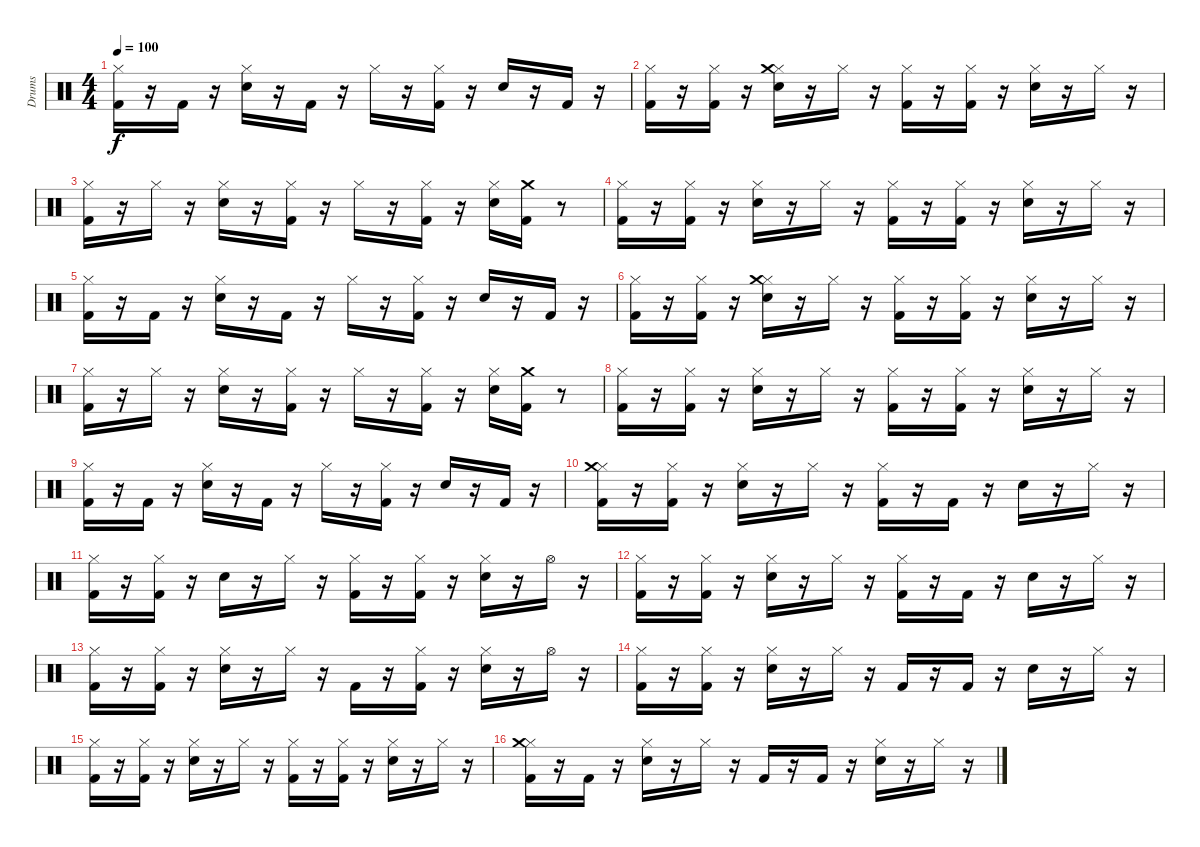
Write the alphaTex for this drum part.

\bracketExtendMode groupsimilarinstruments
\otherSystemsTrackNameOrientation horizontal
\track ("Drumkit" "Drums") {instrument percussion}
\staff {score}
\articulation defaults
\ts (4 4)
\tempo 100
\clef neutral
\ks c
("Kick (hit) 2" "Hi-Hat (closed)").16{dy f beam Down} r.16{beam Down} "Kick (hit) 2".16{beam Down} r.16{beam Down} ("Snare (hit) 2" "Hi-Hat (closed)").16{beam Down} r.16{beam Down} "Kick (hit) 2".16{beam Down} r.16{beam Down} "Hi-Hat (closed)".16{beam Down} r.16{beam Down} ("Kick (hit) 2" "Hi-Hat (closed)").16{beam Down} r.16{beam Down} "Snare (hit) 2".16{beam Up} r.16{beam Up} "Kick (hit) 2".16{beam Up} r.16{beam Up} |
("Kick (hit) 2" "Hi-Hat (closed)").16{beam Down} r.16{beam Down} ("Kick (hit) 2" "Hi-Hat (closed)").16{beam Down} r.16{beam Down} ("Snare (hit) 2" "Hi-Hat (closed)" "Crash medium (hit)").16{beam Down} r.16{beam Down} "Hi-Hat (closed)".16{beam Down} r.16{beam Down} ("Kick (hit) 2" "Hi-Hat (closed)").16{beam Down} r.16{beam Down} ("Kick (hit) 2" "Hi-Hat (closed)").16{beam Down} r.16{beam Down} ("Snare (hit) 2" "Hi-Hat (closed)").16{beam Down} r.16{beam Down} "Hi-Hat (closed)".16{beam Down} r.16{beam Down} |
("Kick (hit) 2" "Hi-Hat (closed)").16{beam Down} r.16{beam Down} "Hi-Hat (closed)".16{beam Down} r.16{beam Down} ("Snare (hit) 2" "Hi-Hat (closed)").16{beam Down} r.16{beam Down} ("Kick (hit) 2" "Hi-Hat (closed)").16{beam Down} r.16{beam Down} "Hi-Hat (closed)".16{beam Down} r.16{beam Down} ("Kick (hit) 2" "Hi-Hat (closed)").16{beam Down} r.16{beam Down} ("Snare (hit) 2" "Hi-Hat (closed)").16{beam Down} ("Kick (hit) 2" "Crash medium (hit)").16{beam Down} r.8{beam Down} |
("Kick (hit) 2" "Hi-Hat (closed)").16{beam Down} r.16{beam Down} ("Kick (hit) 2" "Hi-Hat (closed)").16{beam Down} r.16{beam Down} ("Snare (hit) 2" "Hi-Hat (closed)").16{beam Down} r.16{beam Down} "Hi-Hat (closed)".16{beam Down} r.16{beam Down} ("Kick (hit) 2" "Hi-Hat (closed)").16{beam Down} r.16{beam Down} ("Kick (hit) 2" "Hi-Hat (closed)").16{beam Down} r.16{beam Down} ("Snare (hit) 2" "Hi-Hat (closed)").16{beam Down} r.16{beam Down} "Hi-Hat (closed)".16{beam Down} r.16{beam Down} |
("Kick (hit) 2" "Hi-Hat (closed)").16{beam Down} r.16{beam Down} "Kick (hit) 2".16{beam Down} r.16{beam Down} ("Snare (hit) 2" "Hi-Hat (closed)").16{beam Down} r.16{beam Down} "Kick (hit) 2".16{beam Down} r.16{beam Down} "Hi-Hat (closed)".16{beam Down} r.16{beam Down} ("Kick (hit) 2" "Hi-Hat (closed)").16{beam Down} r.16{beam Down} "Snare (hit) 2".16{beam Up} r.16{beam Up} "Kick (hit) 2".16{beam Up} r.16{beam Up} |
("Kick (hit) 2" "Hi-Hat (closed)").16{beam Down} r.16{beam Down} ("Kick (hit) 2" "Hi-Hat (closed)").16{beam Down} r.16{beam Down} ("Snare (hit) 2" "Hi-Hat (closed)" "Crash medium (hit)").16{beam Down} r.16{beam Down} "Hi-Hat (closed)".16{beam Down} r.16{beam Down} ("Kick (hit) 2" "Hi-Hat (closed)").16{beam Down} r.16{beam Down} ("Kick (hit) 2" "Hi-Hat (closed)").16{beam Down} r.16{beam Down} ("Snare (hit) 2" "Hi-Hat (closed)").16{beam Down} r.16{beam Down} "Hi-Hat (closed)".16{beam Down} r.16{beam Down} |
("Kick (hit) 2" "Hi-Hat (closed)").16{beam Down} r.16{beam Down} "Hi-Hat (closed)".16{beam Down} r.16{beam Down} ("Snare (hit) 2" "Hi-Hat (closed)").16{beam Down} r.16{beam Down} ("Kick (hit) 2" "Hi-Hat (closed)").16{beam Down} r.16{beam Down} "Hi-Hat (closed)".16{beam Down} r.16{beam Down} ("Kick (hit) 2" "Hi-Hat (closed)").16{beam Down} r.16{beam Down} ("Snare (hit) 2" "Hi-Hat (closed)").16{beam Down} ("Kick (hit) 2" "Crash medium (hit)").16{beam Down} r.8{beam Down} |
("Kick (hit) 2" "Hi-Hat (closed)").16{beam Down} r.16{beam Down} ("Kick (hit) 2" "Hi-Hat (closed)").16{beam Down} r.16{beam Down} ("Snare (hit) 2" "Hi-Hat (closed)").16{beam Down} r.16{beam Down} "Hi-Hat (closed)".16{beam Down} r.16{beam Down} ("Kick (hit) 2" "Hi-Hat (closed)").16{beam Down} r.16{beam Down} ("Kick (hit) 2" "Hi-Hat (closed)").16{beam Down} r.16{beam Down} ("Snare (hit) 2" "Hi-Hat (closed)").16{beam Down} r.16{beam Down} "Hi-Hat (closed)".16{beam Down} r.16{beam Down} |
("Kick (hit) 2" "Hi-Hat (closed)").16{beam Down} r.16{beam Down} "Kick (hit) 2".16{beam Down} r.16{beam Down} ("Snare (hit) 2" "Hi-Hat (closed)").16{beam Down} r.16{beam Down} "Kick (hit) 2".16{beam Down} r.16{beam Down} "Hi-Hat (closed)".16{beam Down} r.16{beam Down} ("Kick (hit) 2" "Hi-Hat (closed)").16{beam Down} r.16{beam Down} "Snare (hit) 2".16{beam Up} r.16{beam Up} "Kick (hit) 2".16{beam Up} r.16{beam Up} |
("Kick (hit) 2" "Hi-Hat (closed)" "Crash medium (hit)").16{beam Down} r.16{beam Down} ("Kick (hit) 2" "Hi-Hat (closed)").16{beam Down} r.16{beam Down} ("Snare (hit) 2" "Hi-Hat (closed)").16{beam Down} r.16{beam Down} "Hi-Hat (closed)".16{beam Down} r.16{beam Down} ("Kick (hit) 2" "Hi-Hat (closed)").16{beam Down} r.16{beam Down} "Kick (hit) 2".16{beam Down} r.16{beam Down} "Snare (hit) 2".16{beam Down} r.16{beam Down} "Hi-Hat (closed)".16{beam Down} r.16{beam Down} |
("Kick (hit) 2" "Hi-Hat (closed)").16{beam Down} r.16{beam Down} ("Kick (hit) 2" "Hi-Hat (closed)").16{beam Down} r.16{beam Down} "Snare (hit) 2".16{beam Down} r.16{beam Down} "Hi-Hat (closed)".16{beam Down} r.16{beam Down} ("Kick (hit) 2" "Hi-Hat (closed)").16{beam Down} r.16{beam Down} ("Kick (hit) 2" "Hi-Hat (closed)").16{beam Down} r.16{beam Down} ("Snare (hit) 2" "Hi-Hat (closed)").16{beam Down} r.16{beam Down} "Hi-Hat (open)".16{beam Down} r.16{beam Down} |
("Kick (hit) 2" "Hi-Hat (closed)").16{beam Down} r.16{beam Down} ("Kick (hit) 2" "Hi-Hat (closed)").16{beam Down} r.16{beam Down} ("Snare (hit) 2" "Hi-Hat (closed)").16{beam Down} r.16{beam Down} "Hi-Hat (closed)".16{beam Down} r.16{beam Down} ("Kick (hit) 2" "Hi-Hat (closed)").16{beam Down} r.16{beam Down} "Kick (hit) 2".16{beam Down} r.16{beam Down} "Snare (hit) 2".16{beam Down} r.16{beam Down} "Hi-Hat (closed)".16{beam Down} r.16{beam Down} |
("Kick (hit) 2" "Hi-Hat (closed)").16{beam Down} r.16{beam Down} ("Kick (hit) 2" "Hi-Hat (closed)").16{beam Down} r.16{beam Down} ("Snare (hit) 2" "Hi-Hat (closed)").16{beam Down} r.16{beam Down} "Hi-Hat (closed)".16{beam Down} r.16{beam Down} "Kick (hit) 2".16{beam Down} r.16{beam Down} ("Kick (hit) 2" "Hi-Hat (closed)").16{beam Down} r.16{beam Down} ("Snare (hit) 2" "Hi-Hat (closed)").16{beam Down} r.16{beam Down} "Hi-Hat (open)".16{beam Down} r.16{beam Down} |
("Kick (hit) 2" "Hi-Hat (closed)").16{beam Down} r.16{beam Down} ("Kick (hit) 2" "Hi-Hat (closed)").16{beam Down} r.16{beam Down} ("Snare (hit) 2" "Hi-Hat (closed)").16{beam Down} r.16{beam Down} "Hi-Hat (closed)".16{beam Down} r.16{beam Down} "Kick (hit) 2".16{beam Up} r.16{beam Up} "Kick (hit) 2".16{beam Up} r.16{beam Up} "Snare (hit) 2".16{beam Down} r.16{beam Down} "Hi-Hat (closed)".16{beam Down} r.16{beam Down} |
("Kick (hit) 2" "Hi-Hat (closed)").16{beam Down} r.16{beam Down} ("Kick (hit) 2" "Hi-Hat (closed)").16{beam Down} r.16{beam Down} ("Snare (hit) 2" "Hi-Hat (closed)").16{beam Down} r.16{beam Down} "Hi-Hat (closed)".16{beam Down} r.16{beam Down} ("Kick (hit) 2" "Hi-Hat (closed)").16{beam Down} r.16{beam Down} ("Kick (hit) 2" "Hi-Hat (closed)").16{beam Down} r.16{beam Down} ("Snare (hit) 2" "Hi-Hat (closed)").16{beam Down} r.16{beam Down} "Hi-Hat (closed)".16{beam Down} r.16{beam Down} |
("Kick (hit) 2" "Hi-Hat (closed)" "Crash medium (hit)").16{beam Down} r.16{beam Down} "Kick (hit) 2".16{beam Down} r.16{beam Down} ("Snare (hit) 2" "Hi-Hat (closed)").16{beam Down} r.16{beam Down} "Hi-Hat (closed)".16{beam Down} r.16{beam Down} "Kick (hit) 2".16{beam Up} r.16{beam Up} "Kick (hit) 2".16{beam Up} r.16{beam Up} ("Snare (hit) 2" "Hi-Hat (closed)").16{beam Down} r.16{beam Down} "Hi-Hat (closed)".16{beam Down} r.16{beam Down}
